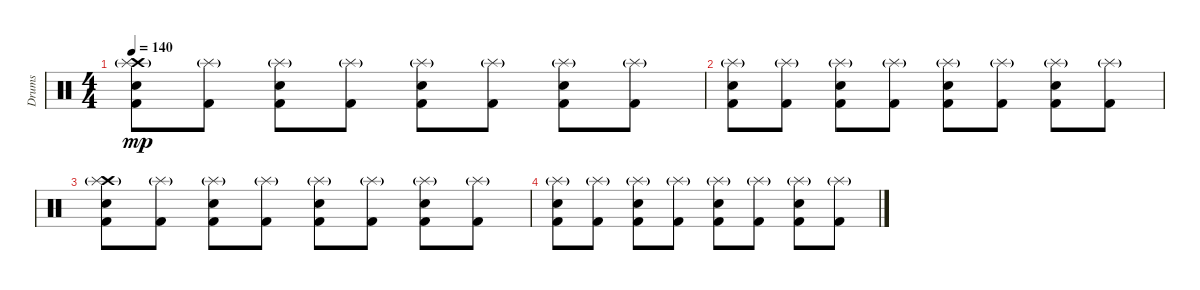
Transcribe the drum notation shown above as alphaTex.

\track ("Drums" "Drums") {instrument percussion}
\staff {score}
\articulation defaults
\ts (4 4)
\tempo 140
\clef neutral
\ks c
("Crash high (hit)" "Splash (hit)"{g} "Electric Snare (hit)" "Kick (hit) 2").8{dy mp} ("Splash (hit)"{g} "Kick (hit) 2").8 ("Splash (hit)"{g} "Electric Snare (hit)" "Kick (hit) 2").8 ("Splash (hit)"{g} "Kick (hit) 2").8 ("Splash (hit)"{g} "Electric Snare (hit)" "Kick (hit) 2").8 ("Splash (hit)"{g} "Kick (hit) 2").8 ("Splash (hit)"{g} "Electric Snare (hit)" "Kick (hit) 2").8 ("Splash (hit)"{g} "Kick (hit) 2").8 |
("Splash (hit)"{g} "Electric Snare (hit)" "Kick (hit) 2").8 ("Splash (hit)"{g} "Kick (hit) 2").8 ("Splash (hit)"{g} "Electric Snare (hit)" "Kick (hit) 2").8 ("Splash (hit)"{g} "Kick (hit) 2").8 ("Splash (hit)"{g} "Electric Snare (hit)" "Kick (hit) 2").8 ("Splash (hit)"{g} "Kick (hit) 2").8 ("Splash (hit)"{g} "Electric Snare (hit)" "Kick (hit) 2").8 ("Splash (hit)"{g} "Kick (hit) 2").8 |
("Crash high (hit)" "Splash (hit)"{g} "Electric Snare (hit)" "Kick (hit) 2").8 ("Splash (hit)"{g} "Kick (hit) 2").8 ("Splash (hit)"{g} "Electric Snare (hit)" "Kick (hit) 2").8 ("Splash (hit)"{g} "Kick (hit) 2").8 ("Splash (hit)"{g} "Electric Snare (hit)" "Kick (hit) 2").8 ("Splash (hit)"{g} "Kick (hit) 2").8 ("Splash (hit)"{g} "Electric Snare (hit)" "Kick (hit) 2").8 ("Splash (hit)"{g} "Kick (hit) 2").8 |
("Splash (hit)"{g} "Electric Snare (hit)" "Kick (hit) 2").8 ("Splash (hit)"{g} "Kick (hit) 2").8 ("Splash (hit)"{g} "Electric Snare (hit)" "Kick (hit) 2").8 ("Splash (hit)"{g} "Kick (hit) 2").8 ("Splash (hit)"{g} "Electric Snare (hit)" "Kick (hit) 2").8 ("Splash (hit)"{g} "Kick (hit) 2").8 ("Splash (hit)"{g} "Electric Snare (hit)" "Kick (hit) 2").8 ("Splash (hit)"{g} "Kick (hit) 2").8
